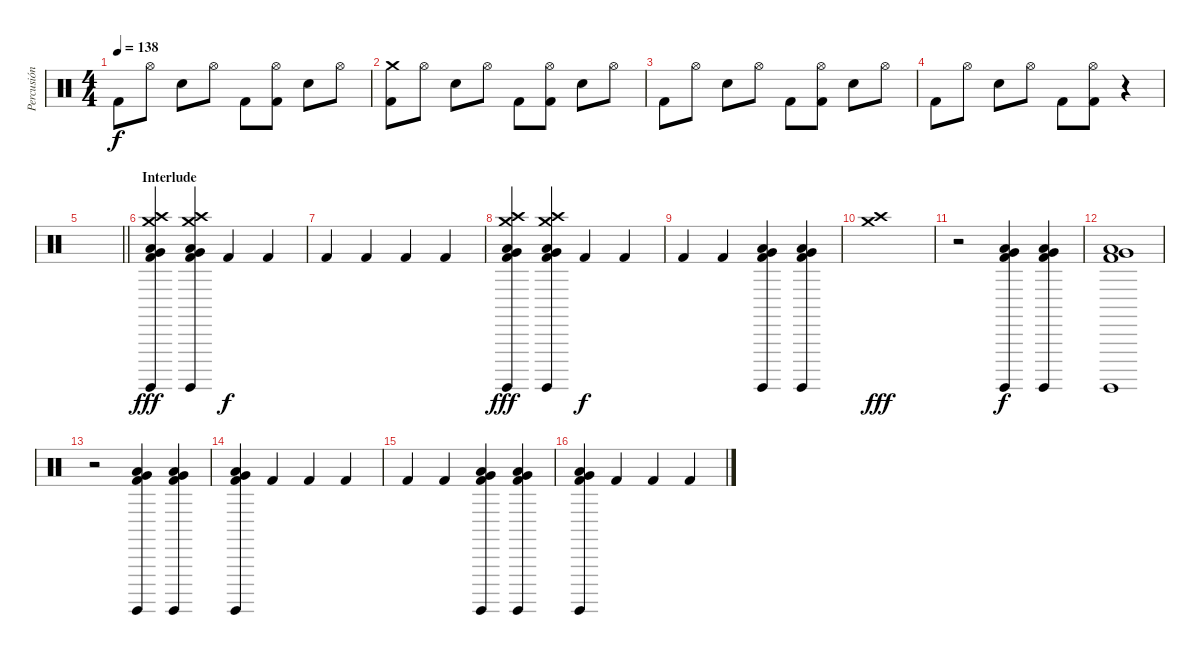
\track ("Percusión" "Percusión") {instrument percussion}
\staff {score}
\articulation defaults
\ts (4 4)
\tempo 138
\clef neutral
\ks c "Kick (hit) 2".8{dy f} "Hi-Hat (open)".8 "Electric Snare (hit)".8 "Hi-Hat (open)".8 "Kick (hit) 2".8
("Hi-Hat (open)" "Kick (hit) 2").8 "Electric Snare (hit)".8 "Hi-Hat (open)".8 |
("Crash medium (hit)" "Kick (hit) 2").8 "Hi-Hat (open)".8 "Electric Snare (hit)".8 "Hi-Hat (open)".8 "Kick (hit) 2".8 ("Hi-Hat (open)" "Kick (hit) 2").8 "Electric Snare (hit)".8 "Hi-Hat (open)".8 |
"Kick (hit) 2".8 "Hi-Hat (open)".8 "Electric Snare (hit)".8 "Hi-Hat (open)".8 "Kick (hit) 2".8 ("Hi-Hat (open)" "Kick (hit) 2").8 "Electric Snare (hit)".8 "Hi-Hat (open)".8 |
"Kick (hit) 2".8 "Hi-Hat (open)".8 "Electric Snare (hit)".8 "Hi-Hat (open)".8 "Kick (hit) 2".8 ("Hi-Hat (open)" "Kick (hit) 2").8 r.4 |
\barLineRight lightlight
|
\section ("" "Interlude")
("Crash medium (hit)" "Crash high (hit)" "Low Tom (hit)" "Surdo (hit)" "Very Low Tom (hit)" "Kick (hit) 2").4{dy fff} ("Crash medium (hit)" "Crash high (hit)" "Low Tom (hit)" "Surdo (hit)" "Very Low Tom (hit)" "Kick (hit) 2").4 "Kick (hit) 2".4{dy f} "Kick (hit) 2".4 |
"Kick (hit) 2".4 "Kick (hit) 2".4 "Kick (hit) 2".4 "Kick (hit) 2".4 |
("Crash medium (hit)" "Crash high (hit)" "Low Tom (hit)" "Surdo (hit)" "Very Low Tom (hit)" "Kick (hit) 2").4{dy fff} ("Crash medium (hit)" "Crash high (hit)" "Low Tom (hit)" "Surdo (hit)" "Very Low Tom (hit)" "Kick (hit) 2").4 "Kick (hit) 2".4{dy f} "Kick (hit) 2".4 |
"Kick (hit) 2".4 "Kick (hit) 2".4 ("Low Tom (hit)" "Surdo (hit)" "Very Low Tom (hit)" "Kick (hit) 2").4 ("Low Tom (hit)" "Surdo (hit)" "Very Low Tom (hit)" "Kick (hit) 2").4 |
("Crash medium (hit)" "Crash high (hit)").1{dy fff} |
r.2 ("Low Tom (hit)" "Surdo (hit)" "Very Low Tom (hit)" "Kick (hit) 2").4{dy f} ("Low Tom (hit)" "Surdo (hit)" "Very Low Tom (hit)" "Kick (hit) 2").4 |
("Low Tom (hit)" "Surdo (hit)" "Very Low Tom (hit)" "Kick (hit) 2").1 |
r.2 ("Low Tom (hit)" "Surdo (hit)" "Very Low Tom (hit)" "Kick (hit) 2").4 ("Low Tom (hit)" "Surdo (hit)" "Very Low Tom (hit)" "Kick (hit) 2").4 |
("Low Tom (hit)" "Surdo (hit)" "Very Low Tom (hit)" "Kick (hit) 2").4 "Kick (hit) 2".4 "Kick (hit) 2".4 "Kick (hit) 2".4 |
"Kick (hit) 2".4 "Kick (hit) 2".4 ("Low Tom (hit)" "Surdo (hit)" "Very Low Tom (hit)" "Kick (hit) 2").4 ("Low Tom (hit)" "Surdo (hit)" "Very Low Tom (hit)" "Kick (hit) 2").4 |
("Low Tom (hit)" "Surdo (hit)" "Very Low Tom (hit)" "Kick (hit) 2").4 "Kick (hit) 2".4 "Kick (hit) 2".4 "Kick (hit) 2".4
